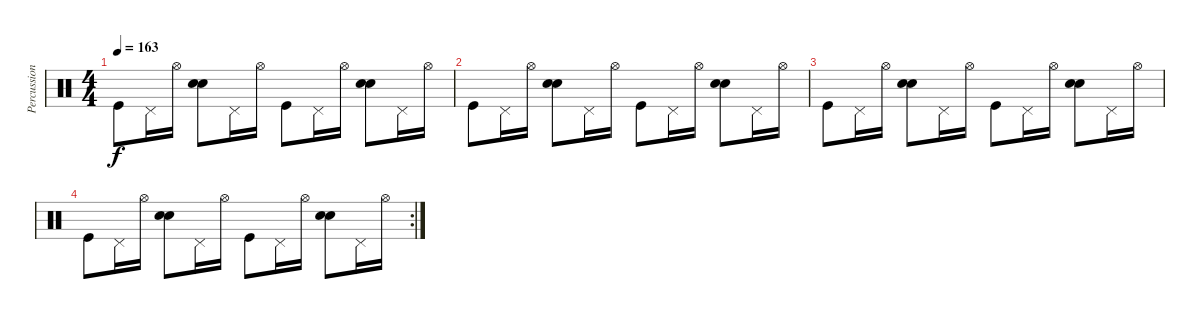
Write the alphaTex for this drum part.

\track ("Percussion" "Percussion") {instrument percussion}
\staff {score}
\articulation defaults
\ts (4 4)
\tempo 163
\clef neutral
\ks c "Kick (hit)".8{dy f} "Pedal Hi-Hat (hit)".16 "Hi-Hat (open)".16
("Snare (hit) 2" "Snare (hit) 2").8 "Pedal Hi-Hat (hit)".16 "Hi-Hat (open)".16 "Kick (hit)".8 "Pedal Hi-Hat (hit)".16 "Hi-Hat (open)".16 ("Snare (hit) 2" "Snare (hit) 2").8 "Pedal Hi-Hat (hit)".16 "Hi-Hat (open)".16 |
"Kick (hit)".8 "Pedal Hi-Hat (hit)".16 "Hi-Hat (open)".16 ("Snare (hit) 2" "Snare (hit) 2").8 "Pedal Hi-Hat (hit)".16 "Hi-Hat (open)".16 "Kick (hit)".8 "Pedal Hi-Hat (hit)".16 "Hi-Hat (open)".16 ("Snare (hit) 2" "Snare (hit) 2").8 "Pedal Hi-Hat (hit)".16 "Hi-Hat (open)".16 |
"Kick (hit)".8 "Pedal Hi-Hat (hit)".16 "Hi-Hat (open)".16 ("Snare (hit) 2" "Snare (hit) 2").8 "Pedal Hi-Hat (hit)".16 "Hi-Hat (open)".16 "Kick (hit)".8 "Pedal Hi-Hat (hit)".16 "Hi-Hat (open)".16 ("Snare (hit) 2" "Snare (hit) 2").8 "Pedal Hi-Hat (hit)".16 "Hi-Hat (open)".16 |
\rc 2 "Kick (hit)".8 "Pedal Hi-Hat (hit)".16 "Hi-Hat (open)".16
("Snare (hit) 2" "Snare (hit) 2").8 "Pedal Hi-Hat (hit)".16 "Hi-Hat (open)".16 "Kick (hit)".8 "Pedal Hi-Hat (hit)".16 "Hi-Hat (open)".16 ("Snare (hit) 2" "Snare (hit) 2").8 "Pedal Hi-Hat (hit)".16 "Hi-Hat (open)".16
